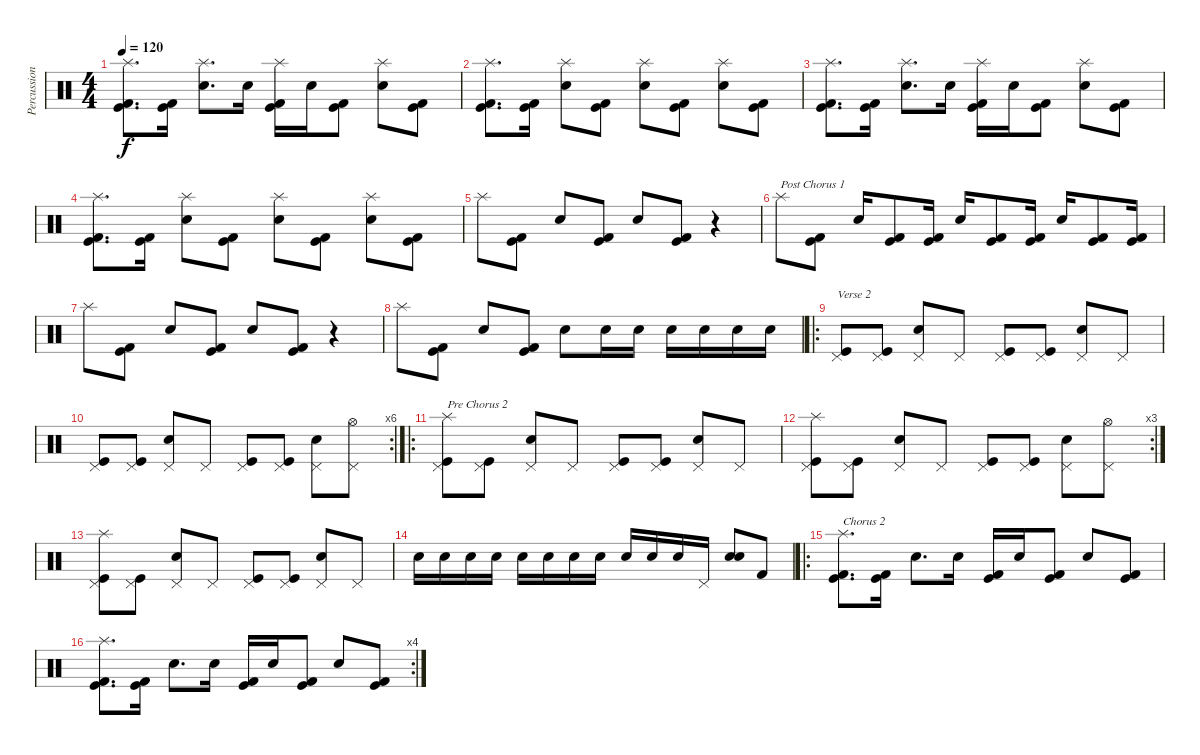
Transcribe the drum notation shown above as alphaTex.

\track ("Percussion" "Percussion") {instrument percussion}
\staff {score}
\articulation defaults
\ts (4 4)
\tempo 120
\clef neutral
\ks c
("Splash (hit)" "Kick (hit)" "Kick (hit) 2").8{d dy f} ("Kick (hit)" "Kick (hit) 2").16 ("Splash (hit)" "Snare (hit) 2").8{d} "Snare (hit) 2".16 ("Splash (hit)" "Kick (hit)" "Kick (hit) 2").16 "Snare (hit) 2".16 ("Kick (hit)" "Kick (hit) 2").8 ("Splash (hit)" "Snare (hit) 2").8 ("Kick (hit)" "Kick (hit) 2").8 |
("Splash (hit)" "Kick (hit)" "Kick (hit) 2").8{d} ("Kick (hit)" "Kick (hit) 2").16 ("Splash (hit)" "Snare (hit) 2").8 ("Kick (hit)" "Kick (hit) 2").8 ("Splash (hit)" "Snare (hit) 2").8 ("Kick (hit)" "Kick (hit) 2").8 ("Splash (hit)" "Snare (hit) 2").8 ("Kick (hit)" "Kick (hit) 2").8 |
("Splash (hit)" "Kick (hit)" "Kick (hit) 2").8{d} ("Kick (hit)" "Kick (hit) 2").16 ("Splash (hit)" "Snare (hit) 2").8{d} "Snare (hit) 2".16 ("Splash (hit)" "Kick (hit)" "Kick (hit) 2").16 "Snare (hit) 2".16 ("Kick (hit)" "Kick (hit) 2").8 ("Splash (hit)" "Snare (hit) 2").8 ("Kick (hit)" "Kick (hit) 2").8 |
("Splash (hit)" "Kick (hit)" "Kick (hit) 2").8{d} ("Kick (hit)" "Kick (hit) 2").16 ("Splash (hit)" "Snare (hit) 2").8 ("Kick (hit)" "Kick (hit) 2").8 ("Splash (hit)" "Snare (hit) 2").8 ("Kick (hit)" "Kick (hit) 2").8 ("Splash (hit)" "Snare (hit) 2").8 ("Kick (hit)" "Kick (hit) 2").8 |
"Splash (hit)".8 ("Kick (hit)" "Kick (hit) 2").8 "Snare (hit) 2".8 ("Kick (hit)" "Kick (hit) 2").8 "Snare (hit) 2".8 ("Kick (hit)" "Kick (hit) 2").8 r.4 |
"Splash (hit)".8{txt "Post Chorus 1"} ("Kick (hit)" "Kick (hit) 2").8 "Snare (hit) 2".16 ("Kick (hit)" "Kick (hit) 2").8 ("Kick (hit)" "Kick (hit) 2").16 "Snare (hit) 2".16 ("Kick (hit)" "Kick (hit) 2").8 ("Kick (hit)" "Kick (hit) 2").16 "Snare (hit) 2".16 ("Kick (hit)" "Kick (hit) 2").8 ("Kick (hit)" "Kick (hit) 2").16 |
"Splash (hit)".8 ("Kick (hit)" "Kick (hit) 2").8 "Snare (hit) 2".8 ("Kick (hit)" "Kick (hit) 2").8 "Snare (hit) 2".8 ("Kick (hit)" "Kick (hit) 2").8 r.4 |
"Splash (hit)".8 ("Kick (hit)" "Kick (hit) 2").8 "Snare (hit) 2".8 ("Kick (hit)" "Kick (hit) 2").8 "Snare (hit) 2".8 "Snare (hit) 2".16 "Snare (hit) 2".16 "Snare (hit) 2".16 "Snare (hit) 2".16 "Snare (hit) 2".16 "Snare (hit) 2".16 |
\ro
("Pedal Hi-Hat (hit)" "Kick (hit)").8{txt "Verse 2"} ("Pedal Hi-Hat (hit)" "Kick (hit)").8 ("Pedal Hi-Hat (hit)" "Snare (hit) 2").8 "Pedal Hi-Hat (hit)".8 ("Pedal Hi-Hat (hit)" "Kick (hit)").8 ("Pedal Hi-Hat (hit)" "Kick (hit)").8 ("Pedal Hi-Hat (hit)" "Snare (hit) 2").8 "Pedal Hi-Hat (hit)".8 |
\rc 6
("Pedal Hi-Hat (hit)" "Kick (hit)").8 ("Pedal Hi-Hat (hit)" "Kick (hit)").8 ("Pedal Hi-Hat (hit)" "Snare (hit) 2").8 "Pedal Hi-Hat (hit)".8 ("Pedal Hi-Hat (hit)" "Kick (hit)").8 ("Pedal Hi-Hat (hit)" "Kick (hit)").8 ("Pedal Hi-Hat (hit)" "Snare (hit) 2").8 ("Pedal Hi-Hat (hit)" "Hi-Hat (open)").8 |
\ro
("Splash (hit)" "Pedal Hi-Hat (hit)" "Kick (hit)").8{txt "Pre Chorus 2"} ("Pedal Hi-Hat (hit)" "Kick (hit)").8 ("Pedal Hi-Hat (hit)" "Snare (hit) 2").8 "Pedal Hi-Hat (hit)".8 ("Pedal Hi-Hat (hit)" "Kick (hit)").8 ("Pedal Hi-Hat (hit)" "Kick (hit)").8 ("Pedal Hi-Hat (hit)" "Snare (hit) 2").8 "Pedal Hi-Hat (hit)".8 |
\rc 3
("Splash (hit)" "Pedal Hi-Hat (hit)" "Kick (hit)").8 ("Pedal Hi-Hat (hit)" "Kick (hit)").8 ("Pedal Hi-Hat (hit)" "Snare (hit) 2").8 "Pedal Hi-Hat (hit)".8 ("Pedal Hi-Hat (hit)" "Kick (hit)").8 ("Pedal Hi-Hat (hit)" "Kick (hit)").8 ("Pedal Hi-Hat (hit)" "Snare (hit) 2").8 ("Pedal Hi-Hat (hit)" "Hi-Hat (open)").8 |
("Splash (hit)" "Pedal Hi-Hat (hit)" "Kick (hit)").8 ("Pedal Hi-Hat (hit)" "Kick (hit)").8 ("Pedal Hi-Hat (hit)" "Snare (hit) 2").8 "Pedal Hi-Hat (hit)".8 ("Pedal Hi-Hat (hit)" "Kick (hit)").8 ("Pedal Hi-Hat (hit)" "Kick (hit)").8 ("Pedal Hi-Hat (hit)" "Snare (hit) 2").8 "Pedal Hi-Hat (hit)".8 |
"Snare (hit) 2".16 "Snare (hit) 2".16 "Snare (hit) 2".16 "Snare (hit) 2".16 "Snare (hit) 2".16 "Snare (hit) 2".16 "Snare (hit) 2".16 "Snare (hit) 2".16 "Snare (hit) 2".16 "Snare (hit) 2".16 "Snare (hit) 2".16 "Pedal Hi-Hat (hit)".16 ("Electric Snare (hit)" "Snare (hit) 2").8 "Kick (hit) 2".8 |
\ro
("Splash (hit)" "Kick (hit)" "Kick (hit) 2").8{d txt "Chorus 2"} ("Kick (hit)" "Kick (hit) 2").16 "Snare (hit) 2".8{d} "Snare (hit) 2".16 ("Kick (hit)" "Kick (hit) 2").16 "Snare (hit) 2".16 ("Kick (hit)" "Kick (hit) 2").8 "Snare (hit) 2".8 ("Kick (hit)" "Kick (hit) 2").8 |
\rc 4
("Splash (hit)" "Kick (hit)" "Kick (hit) 2").8{d} ("Kick (hit)" "Kick (hit) 2").16 "Snare (hit) 2".8{d} "Snare (hit) 2".16 ("Kick (hit)" "Kick (hit) 2").16 "Snare (hit) 2".16 ("Kick (hit)" "Kick (hit) 2").8 "Snare (hit) 2".8 ("Kick (hit)" "Kick (hit) 2").8
